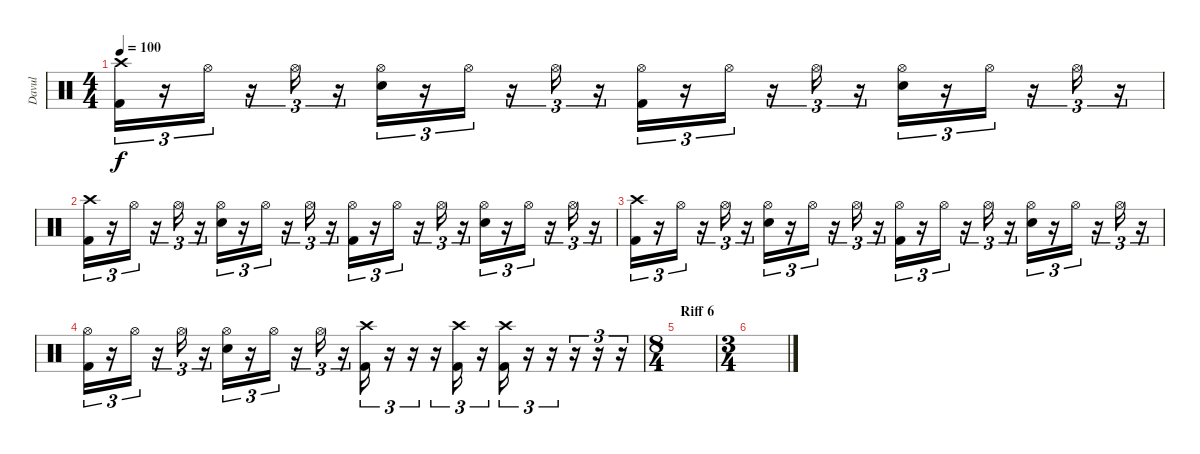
\track ("Davul" "Davul") {instrument percussion}
\staff {score}
\articulation defaults
\ts (4 4)
\tempo 100
\clef neutral
\ks c
("Crash high (hit)" "Kick (hit) 2").16{tu (3 2) dy f} r.16{tu (3 2)} "Hi-Hat (open)".16{tu (3 2)} r.16{tu (3 2)} "Hi-Hat (open)".16{tu (3 2)} r.16{tu (3 2)} ("Hi-Hat (open)" "Electric Snare (hit)").16{tu (3 2)} r.16{tu (3 2)} "Hi-Hat (open)".16{tu (3 2)} r.16{tu (3 2)} "Hi-Hat (open)".16{tu (3 2)} r.16{tu (3 2)} ("Hi-Hat (open)" "Kick (hit) 2").16{tu (3 2)} r.16{tu (3 2)} "Hi-Hat (open)".16{tu (3 2)} r.16{tu (3 2)} "Hi-Hat (open)".16{tu (3 2)} r.16{tu (3 2)} ("Hi-Hat (open)" "Electric Snare (hit)").16{tu (3 2)} r.16{tu (3 2)} "Hi-Hat (open)".16{tu (3 2)} r.16{tu (3 2)} "Hi-Hat (open)".16{tu (3 2)} r.16{tu (3 2)} |
("Crash high (hit)" "Kick (hit) 2").16{tu (3 2)} r.16{tu (3 2)} "Hi-Hat (open)".16{tu (3 2)} r.16{tu (3 2)} "Hi-Hat (open)".16{tu (3 2)} r.16{tu (3 2)} ("Hi-Hat (open)" "Electric Snare (hit)").16{tu (3 2)} r.16{tu (3 2)} "Hi-Hat (open)".16{tu (3 2)} r.16{tu (3 2)} "Hi-Hat (open)".16{tu (3 2)} r.16{tu (3 2)} ("Hi-Hat (open)" "Kick (hit) 2").16{tu (3 2)} r.16{tu (3 2)} "Hi-Hat (open)".16{tu (3 2)} r.16{tu (3 2)} "Hi-Hat (open)".16{tu (3 2)} r.16{tu (3 2)} ("Hi-Hat (open)" "Electric Snare (hit)").16{tu (3 2)} r.16{tu (3 2)} "Hi-Hat (open)".16{tu (3 2)} r.16{tu (3 2)} "Hi-Hat (open)".16{tu (3 2)} r.16{tu (3 2)} |
("Crash high (hit)" "Kick (hit) 2").16{tu (3 2)} r.16{tu (3 2)} "Hi-Hat (open)".16{tu (3 2)} r.16{tu (3 2)} "Hi-Hat (open)".16{tu (3 2)} r.16{tu (3 2)} ("Hi-Hat (open)" "Electric Snare (hit)").16{tu (3 2)} r.16{tu (3 2)} "Hi-Hat (open)".16{tu (3 2)} r.16{tu (3 2)} "Hi-Hat (open)".16{tu (3 2)} r.16{tu (3 2)} ("Hi-Hat (open)" "Kick (hit) 2").16{tu (3 2)} r.16{tu (3 2)} "Hi-Hat (open)".16{tu (3 2)} r.16{tu (3 2)} "Hi-Hat (open)".16{tu (3 2)} r.16{tu (3 2)} ("Hi-Hat (open)" "Electric Snare (hit)").16{tu (3 2)} r.16{tu (3 2)} "Hi-Hat (open)".16{tu (3 2)} r.16{tu (3 2)} "Hi-Hat (open)".16{tu (3 2)} r.16{tu (3 2)} |
("Hi-Hat (open)" "Kick (hit) 2").16{tu (3 2)} r.16{tu (3 2)} "Hi-Hat (open)".16{tu (3 2)} r.16{tu (3 2)} "Hi-Hat (open)".16{tu (3 2)} r.16{tu (3 2)} ("Hi-Hat (open)" "Electric Snare (hit)").16{tu (3 2)} r.16{tu (3 2)} "Hi-Hat (open)".16{tu (3 2)} r.16{tu (3 2)} "Hi-Hat (open)".16{tu (3 2)} r.16{tu (3 2)} ("Crash high (hit)" "Kick (hit) 2").16{tu (3 2)} r.16{tu (3 2)} r.16{tu (3 2)} r.16{tu (3 2)} ("Crash high (hit)" "Kick (hit) 2").16{tu (3 2)} r.16{tu (3 2)} ("Crash high (hit)" "Kick (hit) 2").16{tu (3 2)} r.16{tu (3 2)} r.16{tu (3 2)} r.16{tu (3 2)} r.16{tu (3 2)} r.16{tu (3 2)} |
\ts (8 4)
\section ("" "Riff 6")
|
\ts (3 4)
